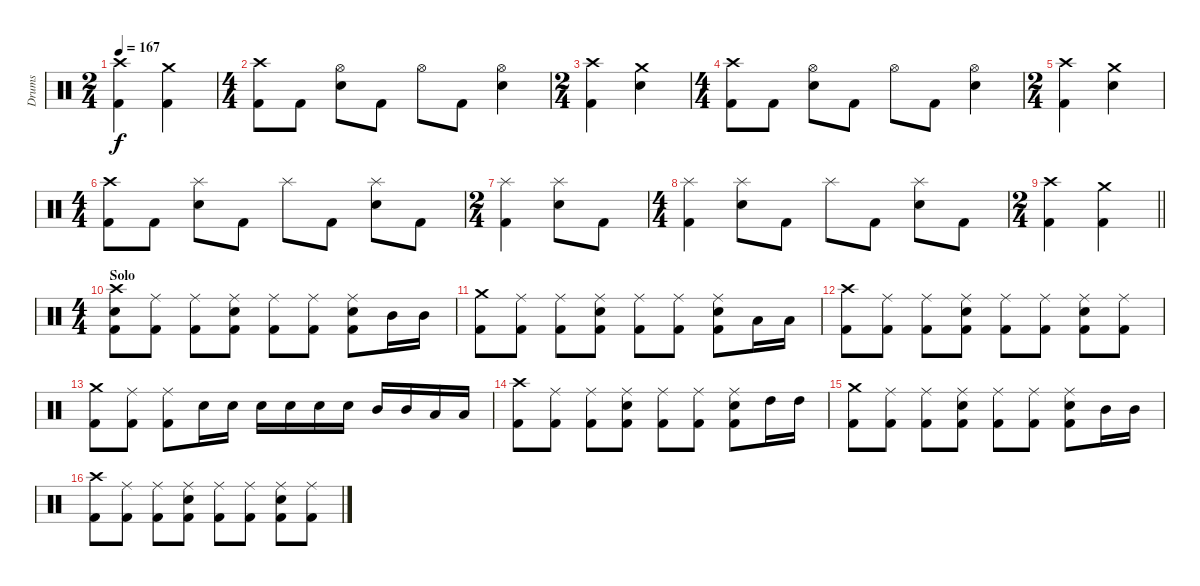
\track ("Drums" "Drums") {instrument percussion}
\staff {score}
\articulation defaults
\ts (2 4)
\tempo 167
\clef neutral
\ks c
("Crash high (hit)" "Kick (hit) 2").4{dy f} ("Crash medium (hit)" "Kick (hit) 2").4 |
\ts (4 4)
("Crash high (hit)" "Kick (hit) 2").8 "Kick (hit) 2".8 ("Hi-Hat (open)" "Snare (hit) 2").8 "Kick (hit) 2".8 "Hi-Hat (open)".8 "Kick (hit) 2".8 ("Hi-Hat (open)" "Snare (hit) 2").4 |
\ts (2 4)
("Crash high (hit)" "Kick (hit) 2").4 ("Crash medium (hit)" "Snare (hit) 2").4 |
\ts (4 4)
("Crash high (hit)" "Kick (hit) 2").8 "Kick (hit) 2".8 ("Hi-Hat (open)" "Snare (hit) 2").8 "Kick (hit) 2".8 "Hi-Hat (open)".8 "Kick (hit) 2".8 ("Hi-Hat (open)" "Snare (hit) 2").4 |
\ts (2 4)
("Crash high (hit)" "Kick (hit) 2").4 ("Crash medium (hit)" "Snare (hit) 2").4 |
\ts (4 4)
("Crash high (hit)" "Kick (hit) 2").8 "Kick (hit) 2".8 ("Splash (hit)" "Snare (hit) 2").8 "Kick (hit) 2".8 "Splash (hit)".8 "Kick (hit) 2".8 ("Splash (hit)" "Snare (hit) 2").8 "Kick (hit) 2".8 |
\ts (2 4)
("Splash (hit)" "Kick (hit) 2").4 ("Splash (hit)" "Snare (hit) 2").8 "Kick (hit) 2".8 |
\ts (4 4)
("Splash (hit)" "Kick (hit) 2").4 ("Splash (hit)" "Snare (hit) 2").8 "Kick (hit) 2".8 "Splash (hit)".8 "Kick (hit) 2".8 ("Splash (hit)" "Snare (hit) 2").8 "Kick (hit) 2".8 |
\ts (2 4)
\barLineRight lightlight
("Crash high (hit)" "Kick (hit) 2").4 ("Crash medium (hit)" "Kick (hit) 2").4 |
\ts (4 4)
\section ("" "Solo")
("Crash high (hit)" "Snare (hit) 2" "Kick (hit) 2").8 ("Ride (middle)" "Kick (hit) 2").8 ("Ride (middle)" "Kick (hit) 2").8 ("Ride (middle)" "Snare (hit) 2" "Kick (hit) 2").8 ("Ride (middle)" "Kick (hit) 2").8 ("Ride (middle)" "Kick (hit) 2").8 ("Ride (middle)" "Snare (hit) 2" "Kick (hit) 2").8 "Mid Tom (hit)".16 "Mid Tom (hit)".16 |
("Crash medium (hit)" "Kick (hit) 2").8 ("Ride (middle)" "Kick (hit) 2").8 ("Ride (middle)" "Kick (hit) 2").8 ("Ride (middle)" "Snare (hit) 2" "Kick (hit) 2").8 ("Ride (middle)" "Kick (hit) 2").8 ("Ride (middle)" "Kick (hit) 2").8 ("Ride (middle)" "Snare (hit) 2" "Kick (hit) 2").8 "Low Tom (hit)".16 "Low Tom (hit)".16 |
("Crash high (hit)" "Kick (hit) 2").8 ("Ride (middle)" "Kick (hit) 2").8 ("Ride (middle)" "Kick (hit) 2").8 ("Ride (middle)" "Snare (hit) 2" "Kick (hit) 2").8 ("Ride (middle)" "Kick (hit) 2").8 ("Ride (middle)" "Kick (hit) 2").8 ("Ride (middle)" "Snare (hit) 2" "Kick (hit) 2").8 ("Ride (middle)" "Kick (hit) 2").8 |
("Crash medium (hit)" "Kick (hit) 2").8 ("Ride (middle)" "Kick (hit) 2").8 ("Ride (middle)" "Kick (hit) 2").8 "Snare (hit) 2".16 "Snare (hit) 2".16 "Snare (hit) 2".16 "Snare (hit) 2".16 "Snare (hit) 2".16 "Snare (hit) 2".16 "Mid Tom (hit)".16 "Mid Tom (hit)".16 "Low Tom (hit)".16 "Low Tom (hit)".16 |
("Crash high (hit)" "Kick (hit) 2").8 ("Ride (middle)" "Kick (hit) 2").8 ("Ride (middle)" "Kick (hit) 2").8 ("Ride (middle)" "Snare (hit) 2" "Kick (hit) 2").8 ("Ride (middle)" "Kick (hit) 2").8 ("Ride (middle)" "Kick (hit) 2").8 ("Ride (middle)" "Snare (hit) 2" "Kick (hit) 2").8 "High Tom (hit)".16 "High Tom (hit)".16 |
("Crash medium (hit)" "Kick (hit) 2").8 ("Ride (middle)" "Kick (hit) 2").8 ("Ride (middle)" "Kick (hit) 2").8 ("Ride (middle)" "Snare (hit) 2" "Kick (hit) 2").8 ("Ride (middle)" "Kick (hit) 2").8 ("Ride (middle)" "Kick (hit) 2").8 ("Ride (middle)" "Snare (hit) 2" "Kick (hit) 2").8 "Mid Tom (hit)".16 "Mid Tom (hit)".16 |
("Crash high (hit)" "Kick (hit) 2").8 ("Ride (middle)" "Kick (hit) 2").8 ("Ride (middle)" "Kick (hit) 2").8 ("Ride (middle)" "Snare (hit) 2" "Kick (hit) 2").8 ("Ride (middle)" "Kick (hit) 2").8 ("Ride (middle)" "Kick (hit) 2").8 ("Ride (middle)" "Snare (hit) 2" "Kick (hit) 2").8 ("Ride (middle)" "Kick (hit) 2").8
